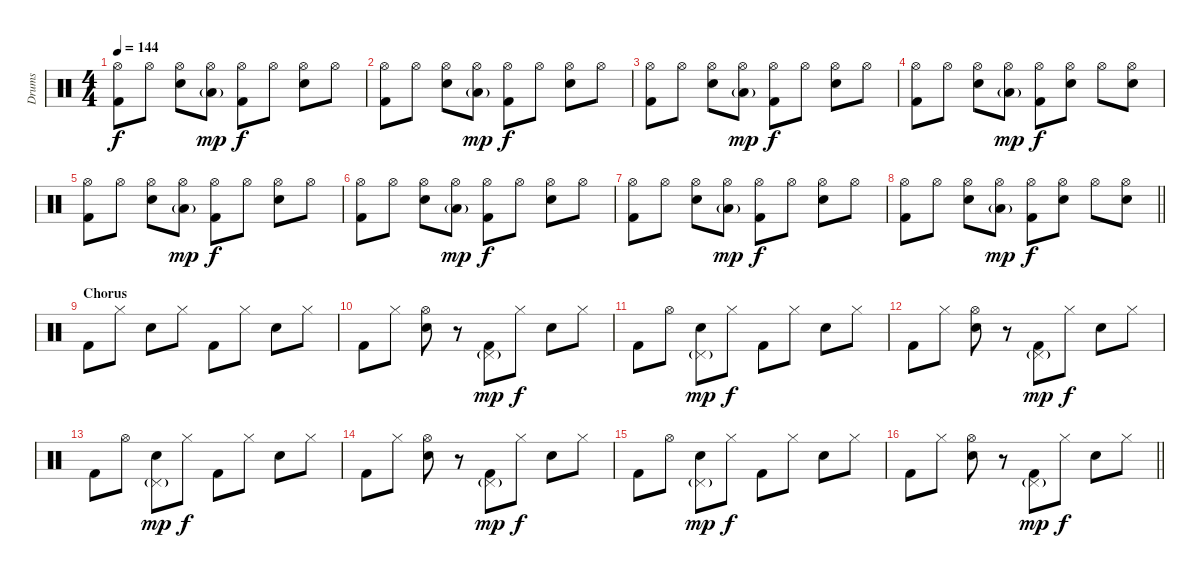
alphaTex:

\track ("Drums" "Drums") {instrument percussion}
\staff {score}
\articulation defaults
\ts (4 4)
\tempo 144
\clef neutral
\ks c
("Hi-Hat (open)" "Kick (hit) 2").8{dy f} "Hi-Hat (open)".8 ("Hi-Hat (open)" "Snare (hit) 2").8 ("Hi-Hat (open)" "Low Floor Tom (hit)"{g}).8{dy mp} ("Hi-Hat (open)" "Kick (hit) 2").8{dy f} "Hi-Hat (open)".8 ("Hi-Hat (open)" "Snare (hit) 2").8 "Hi-Hat (open)".8 |
("Hi-Hat (open)" "Kick (hit) 2").8 "Hi-Hat (open)".8 ("Hi-Hat (open)" "Snare (hit) 2").8 ("Hi-Hat (open)" "Low Floor Tom (hit)"{g}).8{dy mp} ("Hi-Hat (open)" "Kick (hit) 2").8{dy f} "Hi-Hat (open)".8 ("Hi-Hat (open)" "Snare (hit) 2").8 "Hi-Hat (open)".8 |
("Hi-Hat (open)" "Kick (hit) 2").8 "Hi-Hat (open)".8 ("Hi-Hat (open)" "Snare (hit) 2").8 ("Hi-Hat (open)" "Low Floor Tom (hit)"{g}).8{dy mp} ("Hi-Hat (open)" "Kick (hit) 2").8{dy f} "Hi-Hat (open)".8 ("Hi-Hat (open)" "Snare (hit) 2").8 "Hi-Hat (open)".8 |
("Hi-Hat (open)" "Kick (hit) 2").8 "Hi-Hat (open)".8 ("Hi-Hat (open)" "Snare (hit) 2").8 ("Hi-Hat (open)" "Low Floor Tom (hit)"{g}).8{dy mp} ("Hi-Hat (open)" "Kick (hit) 2").8{dy f} ("Hi-Hat (open)" "Snare (hit) 2").8 "Hi-Hat (open)".8 ("Hi-Hat (open)" "Snare (hit) 2").8 |
("Hi-Hat (open)" "Kick (hit) 2").8 "Hi-Hat (open)".8 ("Hi-Hat (open)" "Snare (hit) 2").8 ("Hi-Hat (open)" "Low Floor Tom (hit)"{g}).8{dy mp} ("Hi-Hat (open)" "Kick (hit) 2").8{dy f} "Hi-Hat (open)".8 ("Hi-Hat (open)" "Snare (hit) 2").8 "Hi-Hat (open)".8 |
("Hi-Hat (open)" "Kick (hit) 2").8 "Hi-Hat (open)".8 ("Hi-Hat (open)" "Snare (hit) 2").8 ("Hi-Hat (open)" "Low Floor Tom (hit)"{g}).8{dy mp} ("Hi-Hat (open)" "Kick (hit) 2").8{dy f} "Hi-Hat (open)".8 ("Hi-Hat (open)" "Snare (hit) 2").8 "Hi-Hat (open)".8 |
("Hi-Hat (open)" "Kick (hit) 2").8 "Hi-Hat (open)".8 ("Hi-Hat (open)" "Snare (hit) 2").8 ("Hi-Hat (open)" "Low Floor Tom (hit)"{g}).8{dy mp} ("Hi-Hat (open)" "Kick (hit) 2").8{dy f} "Hi-Hat (open)".8 ("Hi-Hat (open)" "Snare (hit) 2").8 "Hi-Hat (open)".8 |
\barLineRight lightlight
("Hi-Hat (open)" "Kick (hit) 2").8 "Hi-Hat (open)".8 ("Hi-Hat (open)" "Snare (hit) 2").8 ("Hi-Hat (open)" "Low Floor Tom (hit)"{g}).8{dy mp} ("Hi-Hat (open)" "Kick (hit) 2").8{dy f} ("Hi-Hat (open)" "Snare (hit) 2").8 "Hi-Hat (open)".8 ("Hi-Hat (open)" "Snare (hit) 2").8 |
\section ("" "Chorus")
"Kick (hit) 2".8 "Hi-Hat (closed)".8 "Snare (hit) 2".8 "Hi-Hat (closed)".8 "Kick (hit) 2".8 "Hi-Hat (closed)".8 "Snare (hit) 2".8 "Hi-Hat (closed)".8 |
"Kick (hit) 2".8 "Hi-Hat (closed)".8 ("Hi-Hat (open)" "Snare (hit) 2").8 r.8 ("Pedal Hi-Hat (hit)"{g} "Kick (hit) 2").8{dy mp} "Hi-Hat (closed)".8{dy f} "Snare (hit) 2".8 "Hi-Hat (closed)".8 |
"Kick (hit) 2".8 "Hi-Hat (open)".8 ("Pedal Hi-Hat (hit)"{g} "Snare (hit) 2").8{dy mp} "Hi-Hat (closed)".8{dy f} "Kick (hit) 2".8 "Hi-Hat (closed)".8 "Snare (hit) 2".8 "Hi-Hat (closed)".8 |
"Kick (hit) 2".8 "Hi-Hat (closed)".8 ("Hi-Hat (open)" "Snare (hit) 2").8 r.8 ("Pedal Hi-Hat (hit)"{g} "Kick (hit) 2").8{dy mp} "Hi-Hat (closed)".8{dy f} "Snare (hit) 2".8 "Hi-Hat (closed)".8 |
"Kick (hit) 2".8 "Hi-Hat (open)".8 ("Pedal Hi-Hat (hit)"{g} "Snare (hit) 2").8{dy mp} "Hi-Hat (closed)".8{dy f} "Kick (hit) 2".8 "Hi-Hat (closed)".8 "Snare (hit) 2".8 "Hi-Hat (closed)".8 |
"Kick (hit) 2".8 "Hi-Hat (closed)".8 ("Hi-Hat (open)" "Snare (hit) 2").8 r.8 ("Pedal Hi-Hat (hit)"{g} "Kick (hit) 2").8{dy mp} "Hi-Hat (closed)".8{dy f} "Snare (hit) 2".8 "Hi-Hat (closed)".8 |
"Kick (hit) 2".8 "Hi-Hat (open)".8 ("Pedal Hi-Hat (hit)"{g} "Snare (hit) 2").8{dy mp} "Hi-Hat (closed)".8{dy f} "Kick (hit) 2".8 "Hi-Hat (closed)".8 "Snare (hit) 2".8 "Hi-Hat (closed)".8 |
\barLineRight lightlight "Kick (hit) 2".8 "Hi-Hat (closed)".8
("Hi-Hat (open)" "Snare (hit) 2").8 r.8 ("Pedal Hi-Hat (hit)"{g} "Kick (hit) 2").8{dy mp} "Hi-Hat (closed)".8{dy f} "Snare (hit) 2".8 "Hi-Hat (closed)".8
